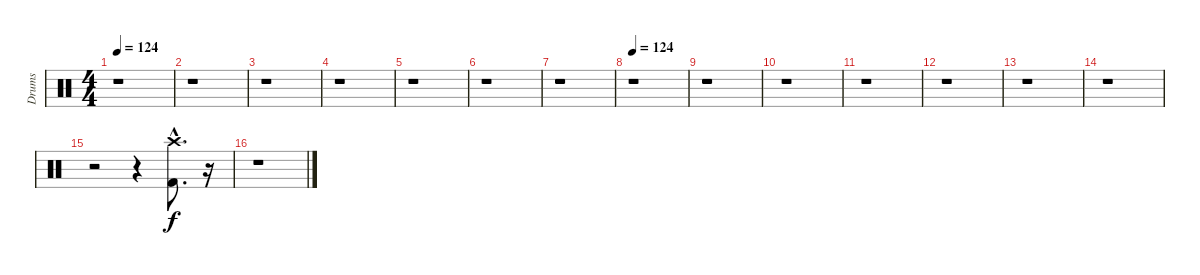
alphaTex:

\track ("Drums" "Drums") {instrument percussion}
\staff {score}
\articulation defaults
\ts (4 4)
\tempo 124
\tempo 92
\tempo 124
\clef neutral
\ks c
r.1{dy f} |
r.1 |
r.1 |
r.1 |
r.1 |
r.1 |
r.1 |
\tempo 124
r.1 |
r.1 |
r.1 |
r.1 |
r.1 |
r.1 |
r.1 |
r.2 r.4 ("Crash high (hit)"{hac} "Kick (hit) 2"{hac}).8{d} r.16 |
r.1
